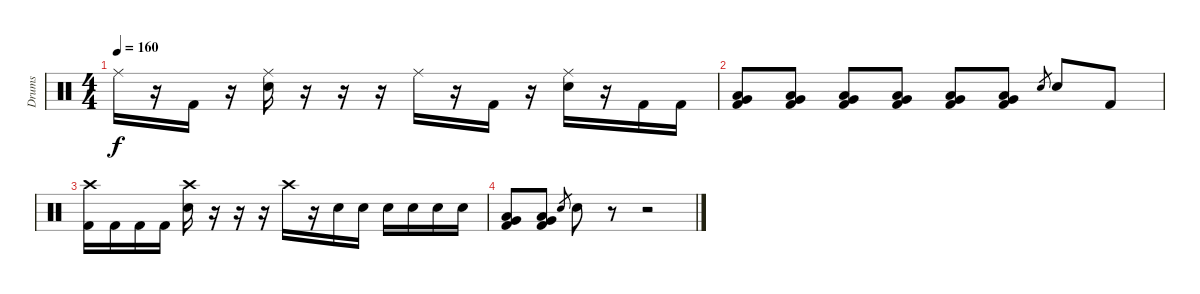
\track ("Drums" "Drums") {instrument percussion}
\staff {score}
\articulation defaults
\ts (4 4)
\tempo 160
\clef neutral
\ks c "Ride (middle)".16{dy f}
r.16 "Kick (hit) 2".16 r.16 ("Ride (middle)" "Electric Snare (hit)").16 r.16 r.16 r.16 "Ride (middle)".16 r.16 "Kick (hit) 2".16 r.16 ("Ride (middle)" "Electric Snare (hit)").16 r.16 "Kick (hit) 2".16 "Kick (hit) 2".16 |
("Low Tom (hit)" "Very Low Tom (hit)" "Kick (hit) 2").8 ("Low Tom (hit)" "Very Low Tom (hit)" "Kick (hit) 2").8 ("Low Tom (hit)" "Very Low Tom (hit)" "Kick (hit) 2").8 ("Low Tom (hit)" "Very Low Tom (hit)" "Kick (hit) 2").8 ("Low Tom (hit)" "Very Low Tom (hit)" "Kick (hit) 2").8 ("Low Tom (hit)" "Very Low Tom (hit)" "Kick (hit) 2").8 "Electric Snare (hit)".8{gr} "Electric Snare (hit)".8 "Kick (hit) 2".8 |
("Crash high (hit)" "Kick (hit) 2").16 "Kick (hit) 2".16 "Kick (hit) 2".16 "Kick (hit) 2".16 ("Crash high (hit)" "Electric Snare (hit)").16 r.16 r.16 r.16 "Crash high (hit)".16 r.16 "Electric Snare (hit)".16 "Electric Snare (hit)".16 "Electric Snare (hit)".16 "Electric Snare (hit)".16 "Electric Snare (hit)".16 "Electric Snare (hit)".16 |
("Low Tom (hit)" "Very Low Tom (hit)" "Kick (hit) 2").8 ("Low Tom (hit)" "Very Low Tom (hit)" "Kick (hit) 2").8 "Electric Snare (hit)".8{gr} "Electric Snare (hit)".8 r.8 r.2
